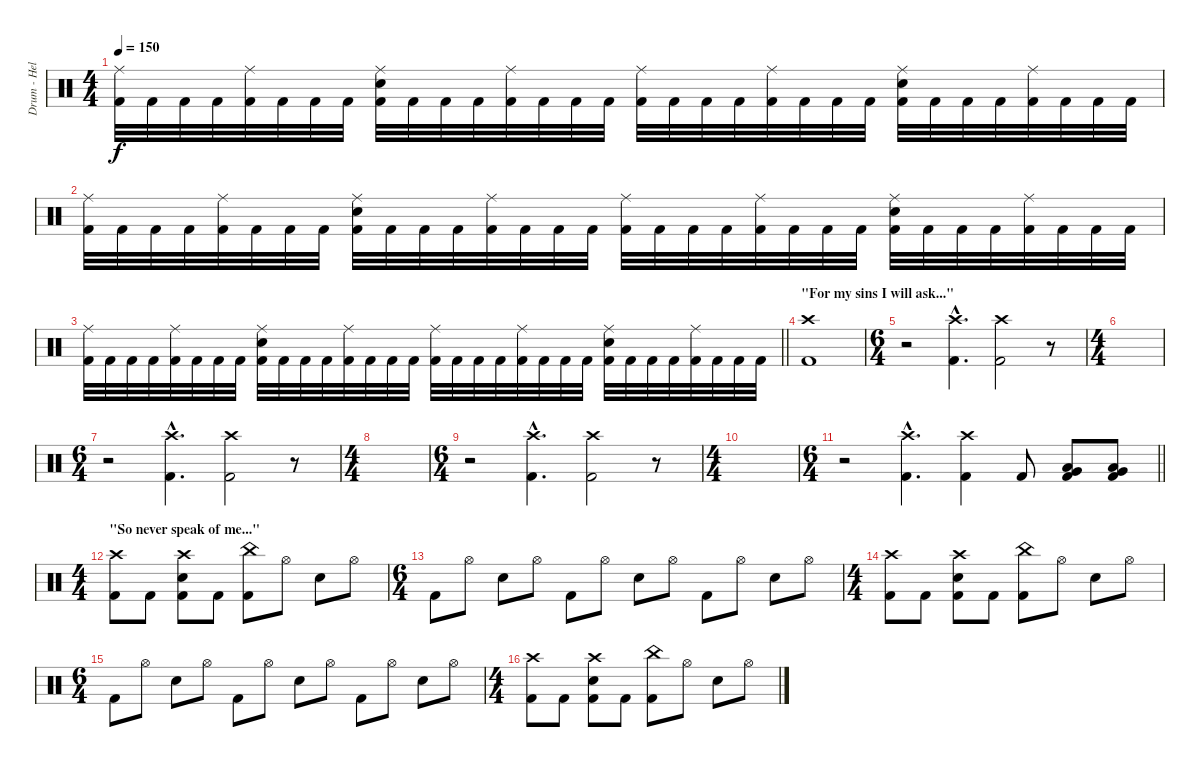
\track ("Drum - Hellhammer" "Drum - Hel") {instrument percussion}
\staff {score}
\articulation defaults
\ts (4 4)
\tempo 150
\clef neutral
\ks c
("Ride (middle)" "Kick (hit) 2").32{dy f} "Kick (hit) 2".32 "Kick (hit) 2".32 "Kick (hit) 2".32 ("Ride (middle)" "Kick (hit) 2").32 "Kick (hit) 2".32 "Kick (hit) 2".32 "Kick (hit) 2".32 ("Ride (middle)" "Electric Snare (hit)" "Kick (hit) 2").32 "Kick (hit) 2".32 "Kick (hit) 2".32 "Kick (hit) 2".32 ("Ride (middle)" "Kick (hit) 2").32 "Kick (hit) 2".32 "Kick (hit) 2".32 "Kick (hit) 2".32 ("Ride (middle)" "Kick (hit) 2").32 "Kick (hit) 2".32 "Kick (hit) 2".32 "Kick (hit) 2".32 ("Ride (middle)" "Kick (hit) 2").32 "Kick (hit) 2".32 "Kick (hit) 2".32 "Kick (hit) 2".32 ("Ride (middle)" "Electric Snare (hit)" "Kick (hit) 2").32 "Kick (hit) 2".32 "Kick (hit) 2".32 "Kick (hit) 2".32 ("Ride (middle)" "Kick (hit) 2").32 "Kick (hit) 2".32 "Kick (hit) 2".32 "Kick (hit) 2".32 |
("Ride (middle)" "Kick (hit) 2").32 "Kick (hit) 2".32 "Kick (hit) 2".32 "Kick (hit) 2".32 ("Ride (middle)" "Kick (hit) 2").32 "Kick (hit) 2".32 "Kick (hit) 2".32 "Kick (hit) 2".32 ("Ride (middle)" "Electric Snare (hit)" "Kick (hit) 2").32 "Kick (hit) 2".32 "Kick (hit) 2".32 "Kick (hit) 2".32 ("Ride (middle)" "Kick (hit) 2").32 "Kick (hit) 2".32 "Kick (hit) 2".32 "Kick (hit) 2".32 ("Ride (middle)" "Kick (hit) 2").32 "Kick (hit) 2".32 "Kick (hit) 2".32 "Kick (hit) 2".32 ("Ride (middle)" "Kick (hit) 2").32 "Kick (hit) 2".32 "Kick (hit) 2".32 "Kick (hit) 2".32 ("Ride (middle)" "Electric Snare (hit)" "Kick (hit) 2").32 "Kick (hit) 2".32 "Kick (hit) 2".32 "Kick (hit) 2".32 ("Ride (middle)" "Kick (hit) 2").32 "Kick (hit) 2".32 "Kick (hit) 2".32 "Kick (hit) 2".32 |
\barLineRight lightlight
("Ride (middle)" "Kick (hit) 2").32 "Kick (hit) 2".32 "Kick (hit) 2".32 "Kick (hit) 2".32 ("Ride (middle)" "Kick (hit) 2").32 "Kick (hit) 2".32 "Kick (hit) 2".32 "Kick (hit) 2".32 ("Ride (middle)" "Electric Snare (hit)" "Kick (hit) 2").32 "Kick (hit) 2".32 "Kick (hit) 2".32 "Kick (hit) 2".32 ("Ride (middle)" "Kick (hit) 2").32 "Kick (hit) 2".32 "Kick (hit) 2".32 "Kick (hit) 2".32 ("Ride (middle)" "Kick (hit) 2").32 "Kick (hit) 2".32 "Kick (hit) 2".32 "Kick (hit) 2".32 ("Ride (middle)" "Kick (hit) 2").32 "Kick (hit) 2".32 "Kick (hit) 2".32 "Kick (hit) 2".32 ("Ride (middle)" "Electric Snare (hit)" "Kick (hit) 2").32 "Kick (hit) 2".32 "Kick (hit) 2".32 "Kick (hit) 2".32 ("Ride (middle)" "Kick (hit) 2").32 "Kick (hit) 2".32 "Kick (hit) 2".32 "Kick (hit) 2".32 |
\section ("" "\"For my sins I will ask...\"")
("Crash high (hit)" "Kick (hit) 2").1 |
\ts (6 4)
r.2 ("Crash high (hit)"{hac} "Kick (hit) 2"{hac}).4{d} ("Crash high (hit)" "Kick (hit) 2").2 r.8 |
\ts (4 4)
|
\ts (6 4)
r.2 ("Crash high (hit)"{hac} "Kick (hit) 2"{hac}).4{d} ("Crash high (hit)" "Kick (hit) 2").2 r.8 |
\ts (4 4)
|
\ts (6 4)
r.2 ("Crash high (hit)"{hac} "Kick (hit) 2"{hac}).4{d} ("Crash high (hit)" "Kick (hit) 2").2 r.8 |
\ts (4 4)
|
\ts (6 4)
\barLineRight lightlight
r.2 ("Crash high (hit)"{hac} "Kick (hit) 2"{hac}).4{d} ("Crash high (hit)" "Kick (hit) 2").4 "Kick (hit) 2".8 ("Low Tom (hit)" "Very Low Tom (hit)" "Kick (hit) 2").8 ("Low Tom (hit)" "Very Low Tom (hit)" "Kick (hit) 2").8 |
\ts (4 4)
\section ("" "\"So never speak of me...\"")
("Crash high (hit)" "Kick (hit) 2").8 "Kick (hit) 2".8 ("Crash high (hit)" "Electric Snare (hit)" "Kick (hit) 2").8 "Kick (hit) 2".8 ("China (hit)" "Kick (hit) 2").8 "Hi-Hat (open)".8 "Electric Snare (hit)".8 "Hi-Hat (open)".8 |
\ts (6 4)
"Kick (hit) 2".8 "Hi-Hat (open)".8 "Electric Snare (hit)".8 "Hi-Hat (open)".8 "Kick (hit) 2".8 "Hi-Hat (open)".8 "Electric Snare (hit)".8 "Hi-Hat (open)".8 "Kick (hit) 2".8 "Hi-Hat (open)".8 "Electric Snare (hit)".8 "Hi-Hat (open)".8 |
\ts (4 4)
("Crash high (hit)" "Kick (hit) 2").8 "Kick (hit) 2".8 ("Crash high (hit)" "Electric Snare (hit)" "Kick (hit) 2").8 "Kick (hit) 2".8 ("China (hit)" "Kick (hit) 2").8 "Hi-Hat (open)".8 "Electric Snare (hit)".8 "Hi-Hat (open)".8 |
\ts (6 4)
"Kick (hit) 2".8 "Hi-Hat (open)".8 "Electric Snare (hit)".8 "Hi-Hat (open)".8 "Kick (hit) 2".8 "Hi-Hat (open)".8 "Electric Snare (hit)".8 "Hi-Hat (open)".8 "Kick (hit) 2".8 "Hi-Hat (open)".8 "Electric Snare (hit)".8 "Hi-Hat (open)".8 |
\ts (4 4)
("Crash high (hit)" "Kick (hit) 2").8 "Kick (hit) 2".8 ("Crash high (hit)" "Electric Snare (hit)" "Kick (hit) 2").8 "Kick (hit) 2".8 ("China (hit)" "Kick (hit) 2").8 "Hi-Hat (open)".8 "Electric Snare (hit)".8 "Hi-Hat (open)".8
